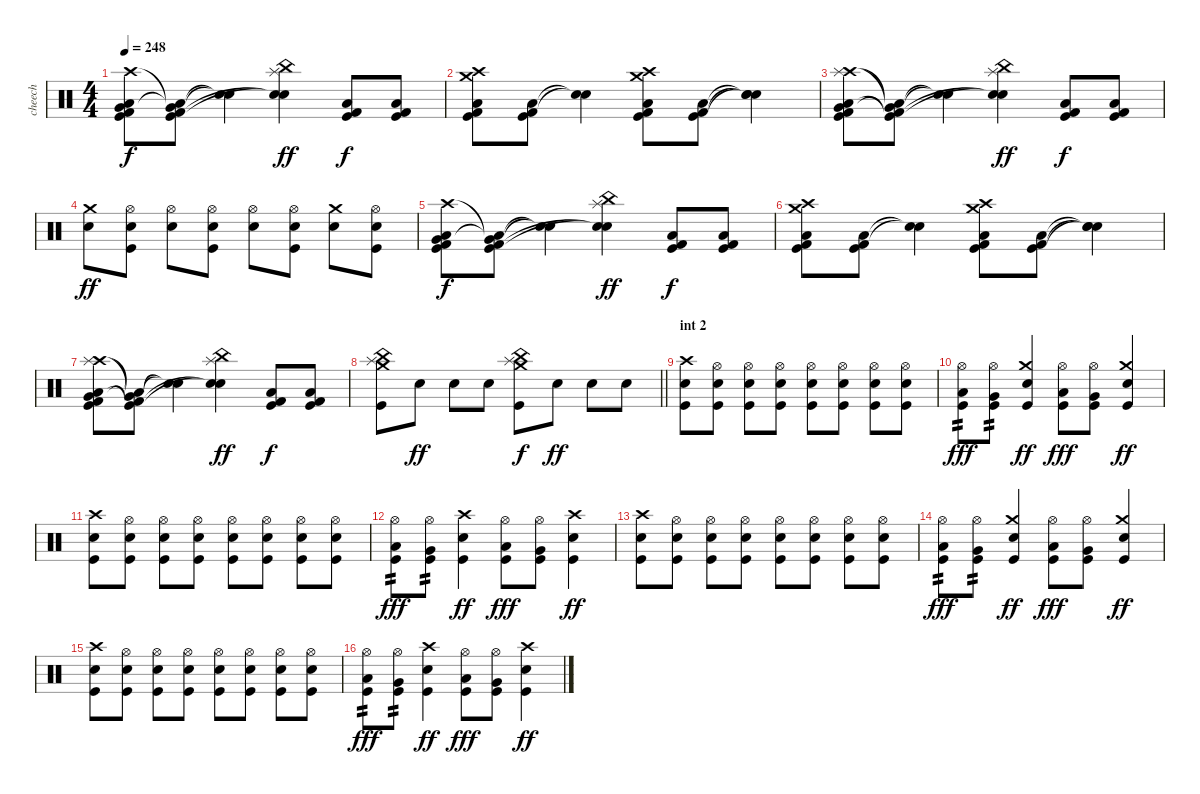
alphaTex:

\track ("cheech" "cheech") {instrument percussion}
\staff {score}
\articulation defaults
\ts (4 4)
\tempo 248
\clef neutral
\ks c
("Crash high (hit)" "Very Low Tom (hit)" "Low Floor Tom (hit)" "Kick (hit) 2" "Kick (hit)").8{dy f} ("Very Low Tom (hit)"{t} "Low Floor Tom (hit)"{t} "Kick (hit) 2" "Kick (hit)").8 ("Snare (hit)"{t} "Snare (hit)"{t}).4 ("Splash (hit)" "China (hit)" "Snare (hit)"{t} "Snare (hit)"{t}).4{dy ff} ("Low Floor Tom (hit)" "Kick (hit) 2" "Kick (hit)").8{dy f} ("Low Floor Tom (hit)" "Kick (hit) 2" "Kick (hit)").8 |
("Crash high (hit)" "Crash medium (hit)" "Low Floor Tom (hit)" "Kick (hit) 2" "Kick (hit)").8 ("Low Floor Tom (hit)" "Kick (hit) 2" "Kick (hit)").8 ("Snare (hit)"{t} "Snare (hit)"{t}).4 ("Crash high (hit)" "Crash medium (hit)" "Low Floor Tom (hit)" "Kick (hit) 2" "Kick (hit)").8 ("Low Floor Tom (hit)" "Kick (hit) 2" "Kick (hit)").8 ("Snare (hit)"{t} "Snare (hit)"{t} "Snare (hit)"{t}).4 |
("Crash high (hit)" "Splash (hit)" "Very Low Tom (hit)" "Low Floor Tom (hit)" "Kick (hit) 2" "Kick (hit)").8 ("Very Low Tom (hit)"{t} "Low Floor Tom (hit)"{t} "Kick (hit) 2"{t} "Kick (hit)"{t}).8 ("Snare (hit)"{t} "Snare (hit)"{t}).4 ("Splash (hit)" "China (hit)" "Snare (hit)"{t} "Snare (hit)"{t}).4{dy ff} ("Low Floor Tom (hit)" "Kick (hit) 2" "Kick (hit)").8{dy f} ("Low Floor Tom (hit)" "Kick (hit) 2" "Kick (hit)").8 |
("Crash medium (hit)" "Electric Snare (hit)").8{dy ff} ("Hi-Hat (open)" "Electric Snare (hit)" "Kick (hit)").8 ("Hi-Hat (open)" "Electric Snare (hit)").8 ("Hi-Hat (open)" "Electric Snare (hit)" "Kick (hit)").8 ("Hi-Hat (open)" "Electric Snare (hit)").8 ("Hi-Hat (open)" "Electric Snare (hit)" "Kick (hit)").8 ("Crash medium (hit)" "Electric Snare (hit)").8 ("Hi-Hat (open)" "Electric Snare (hit)" "Kick (hit)").8 |
("Crash high (hit)" "Very Low Tom (hit)" "Low Floor Tom (hit)" "Kick (hit) 2" "Kick (hit)").8{dy f} ("Very Low Tom (hit)"{t} "Low Floor Tom (hit)"{t} "Kick (hit) 2" "Kick (hit)").8 ("Snare (hit)"{t} "Snare (hit)"{t}).4 ("Splash (hit)" "China (hit)" "Snare (hit)"{t} "Snare (hit)"{t}).4{dy ff} ("Low Floor Tom (hit)" "Kick (hit) 2" "Kick (hit)").8{dy f} ("Low Floor Tom (hit)" "Kick (hit) 2" "Kick (hit)").8 |
("Crash high (hit)" "Crash medium (hit)" "Low Floor Tom (hit)" "Kick (hit) 2" "Kick (hit)").8 ("Low Floor Tom (hit)" "Kick (hit) 2" "Kick (hit)").8 ("Snare (hit)"{t} "Snare (hit)"{t}).4 ("Crash high (hit)" "Crash medium (hit)" "Low Floor Tom (hit)" "Kick (hit) 2" "Kick (hit)").8 ("Low Floor Tom (hit)" "Kick (hit) 2" "Kick (hit)").8 ("Snare (hit)"{t} "Snare (hit)"{t} "Snare (hit)"{t}).4 |
("Crash high (hit)" "Splash (hit)" "Very Low Tom (hit)" "Low Floor Tom (hit)" "Kick (hit) 2" "Kick (hit)").8 ("Very Low Tom (hit)"{t} "Low Floor Tom (hit)"{t} "Kick (hit) 2"{t} "Kick (hit)"{t}).8 ("Snare (hit)"{t} "Snare (hit)"{t}).4 ("Splash (hit)" "China (hit)" "Snare (hit)"{t} "Snare (hit)"{t}).4{dy ff} ("Low Floor Tom (hit)" "Kick (hit) 2" "Kick (hit)").8{dy f} ("Low Floor Tom (hit)" "Kick (hit) 2" "Kick (hit)").8 |
\barLineRight lightlight
("Splash (hit)" "China (hit)" "Crash medium (hit)" "Kick (hit)").8 "Electric Snare (hit)".8{dy ff} "Electric Snare (hit)".8 "Electric Snare (hit)".8 ("Splash (hit)" "China (hit)" "Crash medium (hit)" "Kick (hit)").8{dy f} "Electric Snare (hit)".8{dy ff} "Electric Snare (hit)".8 "Electric Snare (hit)".8 |
\section ("" "int 2")
("Crash high (hit)" "Electric Snare (hit)" "Kick (hit)").8 ("Hi-Hat (open)" "Electric Snare (hit)" "Kick (hit)").8 ("Hi-Hat (open)" "Electric Snare (hit)" "Kick (hit)").8 ("Hi-Hat (open)" "Electric Snare (hit)" "Kick (hit)").8 ("Hi-Hat (open)" "Electric Snare (hit)" "Kick (hit)").8 ("Hi-Hat (open)" "Electric Snare (hit)" "Kick (hit)").8 ("Hi-Hat (open)" "Electric Snare (hit)" "Kick (hit)").8 ("Hi-Hat (open)" "Electric Snare (hit)" "Kick (hit)").8 |
("Hi-Hat (open)" "Low Tom (hit)" "Kick (hit)").8{tp 2 dy fff} ("Hi-Hat (open)" "Very Low Tom (hit)" "Kick (hit)").8{tp 2} ("Crash medium (hit)" "Electric Snare (hit)" "Kick (hit)").4{dy ff} ("Hi-Hat (open)" "Low Tom (hit)" "Kick (hit)").8{dy fff} ("Hi-Hat (open)" "Very Low Tom (hit)" "Kick (hit)").8 ("Crash medium (hit)" "Electric Snare (hit)" "Kick (hit)").4{dy ff} |
("Crash high (hit)" "Electric Snare (hit)" "Kick (hit)").8 ("Hi-Hat (open)" "Electric Snare (hit)" "Kick (hit)").8 ("Hi-Hat (open)" "Electric Snare (hit)" "Kick (hit)").8 ("Hi-Hat (open)" "Electric Snare (hit)" "Kick (hit)").8 ("Hi-Hat (open)" "Electric Snare (hit)" "Kick (hit)").8 ("Hi-Hat (open)" "Electric Snare (hit)" "Kick (hit)").8 ("Hi-Hat (open)" "Electric Snare (hit)" "Kick (hit)").8 ("Hi-Hat (open)" "Electric Snare (hit)" "Kick (hit)").8 |
("Hi-Hat (open)" "Low Tom (hit)" "Kick (hit)").8{tp 2 dy fff} ("Hi-Hat (open)" "Very Low Tom (hit)" "Kick (hit)").8{tp 2} ("Crash high (hit)" "Electric Snare (hit)" "Kick (hit)").4{dy ff} ("Hi-Hat (open)" "Low Tom (hit)" "Kick (hit)").8{dy fff} ("Hi-Hat (open)" "Very Low Tom (hit)" "Kick (hit)").8 ("Crash high (hit)" "Electric Snare (hit)" "Kick (hit)").4{dy ff} |
("Crash high (hit)" "Electric Snare (hit)" "Kick (hit)").8 ("Hi-Hat (open)" "Electric Snare (hit)" "Kick (hit)").8 ("Hi-Hat (open)" "Electric Snare (hit)" "Kick (hit)").8 ("Hi-Hat (open)" "Electric Snare (hit)" "Kick (hit)").8 ("Hi-Hat (open)" "Electric Snare (hit)" "Kick (hit)").8 ("Hi-Hat (open)" "Electric Snare (hit)" "Kick (hit)").8 ("Hi-Hat (open)" "Electric Snare (hit)" "Kick (hit)").8 ("Hi-Hat (open)" "Electric Snare (hit)" "Kick (hit)").8 |
("Hi-Hat (open)" "Low Tom (hit)" "Kick (hit)").8{tp 2 dy fff} ("Hi-Hat (open)" "Very Low Tom (hit)" "Kick (hit)").8{tp 2} ("Crash medium (hit)" "Electric Snare (hit)" "Kick (hit)").4{dy ff} ("Hi-Hat (open)" "Low Tom (hit)" "Kick (hit)").8{dy fff} ("Hi-Hat (open)" "Very Low Tom (hit)" "Kick (hit)").8 ("Crash medium (hit)" "Electric Snare (hit)" "Kick (hit)").4{dy ff} |
("Crash high (hit)" "Electric Snare (hit)" "Kick (hit)").8 ("Hi-Hat (open)" "Electric Snare (hit)" "Kick (hit)").8 ("Hi-Hat (open)" "Electric Snare (hit)" "Kick (hit)").8 ("Hi-Hat (open)" "Electric Snare (hit)" "Kick (hit)").8 ("Hi-Hat (open)" "Electric Snare (hit)" "Kick (hit)").8 ("Hi-Hat (open)" "Electric Snare (hit)" "Kick (hit)").8 ("Hi-Hat (open)" "Electric Snare (hit)" "Kick (hit)").8 ("Hi-Hat (open)" "Electric Snare (hit)" "Kick (hit)").8 |
("Hi-Hat (open)" "Low Tom (hit)" "Kick (hit)").8{tp 2 dy fff} ("Hi-Hat (open)" "Very Low Tom (hit)" "Kick (hit)").8{tp 2} ("Crash high (hit)" "Electric Snare (hit)" "Kick (hit)").4{dy ff} ("Hi-Hat (open)" "Low Tom (hit)" "Kick (hit)").8{dy fff} ("Hi-Hat (open)" "Very Low Tom (hit)" "Kick (hit)").8 ("Crash high (hit)" "Electric Snare (hit)" "Kick (hit)").4{dy ff}
